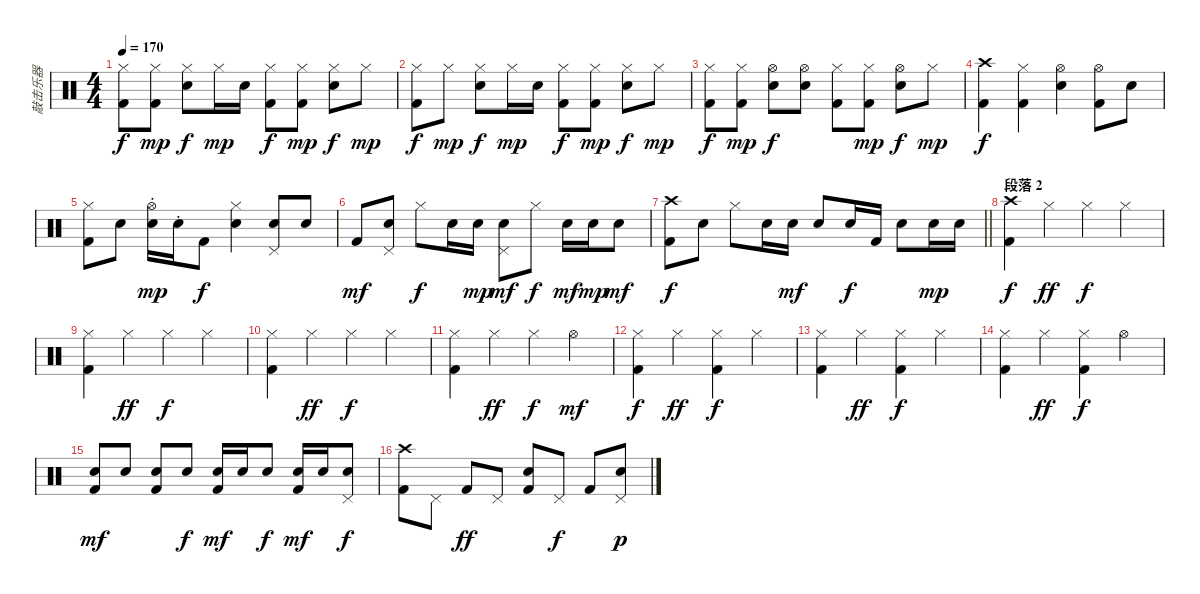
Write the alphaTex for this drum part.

\track ("敲击乐器" "敲击乐器") {instrument percussion}
\staff {score}
\articulation defaults
\ts (4 4)
\tempo 170
\clef neutral
\ks c
("Hi-Hat (closed)" "Kick (hit) 2").8{dy f} ("Hi-Hat (closed)" "Kick (hit) 2").8{dy mp} ("Hi-Hat (closed)" "Snare (hit) 2").8{dy f} "Hi-Hat (closed)".16{dy mp} "Snare (hit) 2".16 ("Hi-Hat (closed)" "Kick (hit) 2").8{dy f} ("Hi-Hat (closed)" "Kick (hit) 2").8{dy mp} ("Hi-Hat (closed)" "Snare (hit) 2").8{dy f} "Hi-Hat (closed)".8{dy mp} |
("Hi-Hat (closed)" "Kick (hit) 2").8{dy f} "Hi-Hat (closed)".8{dy mp} ("Hi-Hat (closed)" "Snare (hit) 2").8{dy f} "Hi-Hat (closed)".16{dy mp} "Snare (hit) 2".16 ("Hi-Hat (closed)" "Kick (hit) 2").8{dy f} ("Hi-Hat (closed)" "Kick (hit) 2").8{dy mp} ("Hi-Hat (closed)" "Snare (hit) 2").8{dy f} "Hi-Hat (closed)".8{dy mp} |
("Hi-Hat (closed)" "Kick (hit) 2").8{dy f} ("Hi-Hat (closed)" "Kick (hit) 2").8{dy mp} ("Hi-Hat (open)" "Snare (hit) 2").8{dy f} ("Hi-Hat (open)" "Snare (hit) 2").8 ("Hi-Hat (closed)" "Kick (hit) 2").8 ("Hi-Hat (closed)" "Kick (hit) 2").8{dy mp} ("Hi-Hat (open)" "Snare (hit) 2").8{dy f} "Hi-Hat (closed)".8{dy mp} |
("Crash high (hit)" "Kick (hit) 2").4{dy f} ("Hi-Hat (closed)" "Kick (hit) 2").4 ("Hi-Hat (open)" "Snare (hit) 2").4 ("Hi-Hat (open)" "Kick (hit) 2").8 "Snare (hit) 2".8 |
("Hi-Hat (closed)" "Kick (hit) 2").8 "Snare (hit) 2".8 ("Hi-Hat (open)" "Snare (hit) 2"{st}).16{dy mp} "Snare (hit) 2"{st}.16 "Kick (hit) 2".8{dy f} ("Hi-Hat (closed)" "Snare (hit) 2").4 ("Pedal Hi-Hat (hit)" "Snare (hit) 2").8 "Snare (hit) 2".8 |
"Kick (hit) 2".8{dy mf} ("Pedal Hi-Hat (hit)" "Snare (hit) 2").8 "Hi-Hat (closed)".8{dy f} "Snare (hit) 2".16 "Snare (hit) 2".16{dy mp} ("Pedal Hi-Hat (hit)" "Snare (hit) 2").8{dy mf} "Hi-Hat (closed)".8{dy f} "Snare (hit) 2".16{dy mf} "Snare (hit) 2".16{dy mp} "Snare (hit) 2".8{dy mf} |
\barLineRight lightlight
("Crash high (hit)" "Kick (hit) 2").8{dy f} "Snare (hit) 2".8 "Hi-Hat (closed)".8 "Snare (hit) 2".16 "Snare (hit) 2".16{dy mf} "Snare (hit) 2".8 "Snare (hit) 2".16{dy f} "Kick (hit) 2".16 "Snare (hit) 2".8 "Snare (hit) 2".16{dy mp} "Snare (hit) 2".16 |
\section ("" "段落 2")
("Crash high (hit)" "Kick (hit) 2").4{dy f} "Hi-Hat (closed)".4{dy ff} "Hi-Hat (closed)".4{dy f} "Hi-Hat (closed)".4 |
("Hi-Hat (closed)" "Kick (hit) 2").4 "Hi-Hat (closed)".4{dy ff} "Hi-Hat (closed)".4{dy f} "Hi-Hat (closed)".4 |
("Hi-Hat (closed)" "Kick (hit) 2").4 "Hi-Hat (closed)".4{dy ff} "Hi-Hat (closed)".4{dy f} "Hi-Hat (closed)".4 |
("Hi-Hat (closed)" "Kick (hit) 2").4 "Hi-Hat (closed)".4{dy ff} "Hi-Hat (closed)".4{dy f} "Hi-Hat (open)".4{dy mf} |
("Hi-Hat (closed)" "Kick (hit) 2").4{dy f} "Hi-Hat (closed)".4{dy ff} ("Hi-Hat (closed)" "Kick (hit) 2").4{dy f} "Hi-Hat (closed)".4 |
("Hi-Hat (closed)" "Kick (hit) 2").4 "Hi-Hat (closed)".4{dy ff} ("Hi-Hat (closed)" "Kick (hit) 2").4{dy f} "Hi-Hat (closed)".4 |
("Hi-Hat (closed)" "Kick (hit) 2").4 "Hi-Hat (closed)".4{dy ff} ("Hi-Hat (closed)" "Kick (hit) 2").4{dy f} "Hi-Hat (open)".4 |
("Kick (hit) 2" "Snare (hit) 2").8{dy mf} "Snare (hit) 2".8 ("Kick (hit) 2" "Snare (hit) 2").8 "Snare (hit) 2".8{dy f} ("Kick (hit) 2" "Snare (hit) 2").16{dy mf} "Snare (hit) 2".16 "Snare (hit) 2".8{dy f} ("Kick (hit) 2" "Snare (hit) 2").16{dy mf} "Snare (hit) 2".16 ("Pedal Hi-Hat (hit)" "Snare (hit) 2").8{dy f} |
("Crash high (hit)" "Kick (hit) 2").8 "Pedal Hi-Hat (hit)".8 "Kick (hit) 2".8{dy ff} "Pedal Hi-Hat (hit)".8 ("Snare (hit) 2" "Kick (hit) 2").8 "Pedal Hi-Hat (hit)".8{dy f} "Kick (hit) 2".8 ("Pedal Hi-Hat (hit)" "Snare (hit) 2").8{dy p}
